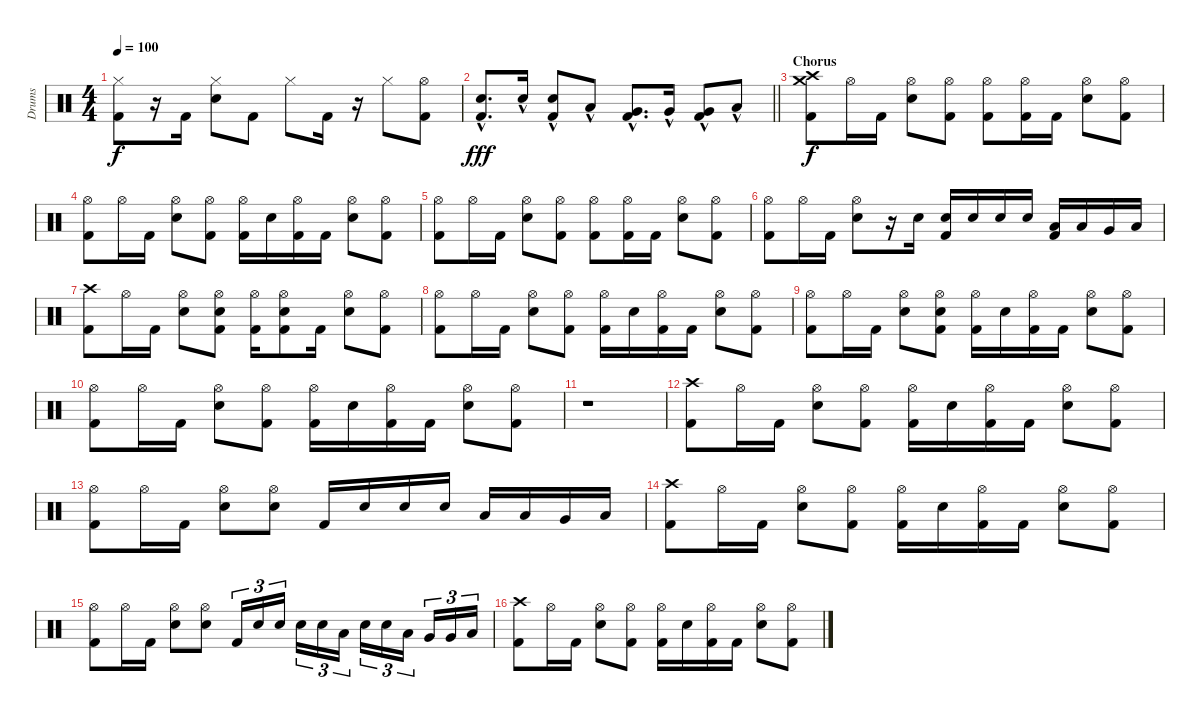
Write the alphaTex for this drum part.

\track ("Drums" "Drums") {instrument percussion}
\staff {score}
\articulation defaults
\ts (4 4)
\tempo 100
\clef neutral
\ks c
("Hi-Hat (closed)" "Kick (hit) 2").8{dy f} r.16 "Kick (hit) 2".16 ("Hi-Hat (closed)" "Snare (hit) 2").8 "Kick (hit) 2".8 "Hi-Hat (closed)".8 "Kick (hit) 2".16 r.16 "Hi-Hat (closed)".8 ("Hi-Hat (open)" "Kick (hit) 2").8 |
\barLineRight lightlight
("Snare (hit) 2"{hac} "Kick (hit) 2").8{d dy fff} "Snare (hit) 2"{hac}.16 ("Snare (hit) 2"{hac} "Kick (hit) 2").8 "Low Tom (hit)"{hac}.8 ("Very Low Tom (hit)"{hac} "Kick (hit) 2").8{d} "Very Low Tom (hit)"{hac}.16 ("Very Low Tom (hit)"{hac} "Kick (hit) 2").8 "Low Floor Tom (hit)"{hac}.8 |
\section ("" "Chorus")
("Crash medium (hit)" "Crash high (hit)" "Kick (hit) 2").8{dy f} "Hi-Hat (open)".16 "Kick (hit) 2".16 ("Hi-Hat (open)" "Snare (hit) 2").8 ("Hi-Hat (open)" "Kick (hit) 2").8 ("Hi-Hat (open)" "Kick (hit) 2").8 ("Hi-Hat (open)" "Kick (hit) 2").16 "Kick (hit) 2".16 ("Hi-Hat (open)" "Snare (hit) 2").8 ("Hi-Hat (open)" "Kick (hit) 2").8 |
("Hi-Hat (open)" "Kick (hit) 2").8 "Hi-Hat (open)".16 "Kick (hit) 2".16 ("Hi-Hat (open)" "Snare (hit) 2").8 ("Hi-Hat (open)" "Kick (hit) 2").8 ("Hi-Hat (open)" "Kick (hit) 2").16 "Snare (hit) 2".16 ("Hi-Hat (open)" "Kick (hit) 2").16 "Kick (hit) 2".16 ("Hi-Hat (open)" "Snare (hit) 2").8 ("Hi-Hat (open)" "Kick (hit) 2").8 |
("Hi-Hat (open)" "Kick (hit) 2").8 "Hi-Hat (open)".16 "Kick (hit) 2".16 ("Hi-Hat (open)" "Snare (hit) 2").8 ("Hi-Hat (open)" "Kick (hit) 2").8 ("Hi-Hat (open)" "Kick (hit) 2").8 ("Hi-Hat (open)" "Kick (hit) 2").16 "Kick (hit) 2".16 ("Hi-Hat (open)" "Snare (hit) 2").8 ("Hi-Hat (open)" "Kick (hit) 2").8 |
("Hi-Hat (open)" "Kick (hit) 2").8 "Hi-Hat (open)".16 "Kick (hit) 2".16 ("Hi-Hat (open)" "Snare (hit) 2").8 r.16 "Snare (hit) 2".16 ("Snare (hit) 2" "Kick (hit) 2").16 "Snare (hit) 2".16 "Snare (hit) 2".16 "Snare (hit) 2".16 ("Low Tom (hit)" "Kick (hit) 2").16 "Low Tom (hit)".16 "Very Low Tom (hit)".16 "Low Floor Tom (hit)".16 |
("Crash high (hit)" "Kick (hit) 2").8 "Hi-Hat (open)".16 "Kick (hit) 2".16 ("Hi-Hat (open)" "Snare (hit) 2").8 ("Hi-Hat (open)" "Snare (hit) 2" "Kick (hit) 2").8 ("Hi-Hat (open)" "Kick (hit) 2").16 ("Hi-Hat (open)" "Snare (hit) 2" "Kick (hit) 2").8 "Kick (hit) 2".16 ("Hi-Hat (open)" "Snare (hit) 2").8 ("Hi-Hat (open)" "Kick (hit) 2").8 |
("Hi-Hat (open)" "Kick (hit) 2").8 "Hi-Hat (open)".16 "Kick (hit) 2".16 ("Hi-Hat (open)" "Snare (hit) 2").8 ("Hi-Hat (open)" "Kick (hit) 2").8 ("Hi-Hat (open)" "Kick (hit) 2").16 "Snare (hit) 2".16 ("Hi-Hat (open)" "Kick (hit) 2").16 "Kick (hit) 2".16 ("Hi-Hat (open)" "Snare (hit) 2").8 ("Hi-Hat (open)" "Kick (hit) 2").8 |
("Hi-Hat (open)" "Kick (hit) 2").8 "Hi-Hat (open)".16 "Kick (hit) 2".16 ("Hi-Hat (open)" "Snare (hit) 2").8 ("Hi-Hat (open)" "Snare (hit) 2" "Kick (hit) 2").8 ("Hi-Hat (open)" "Kick (hit) 2").16 "Snare (hit) 2".16 ("Hi-Hat (open)" "Kick (hit) 2").16 "Kick (hit) 2".16 ("Hi-Hat (open)" "Snare (hit) 2").8 ("Hi-Hat (open)" "Kick (hit) 2").8 |
("Hi-Hat (open)" "Kick (hit) 2").8 "Hi-Hat (open)".16 "Kick (hit) 2".16 ("Hi-Hat (open)" "Snare (hit) 2").8 ("Hi-Hat (open)" "Kick (hit) 2").8 ("Hi-Hat (open)" "Kick (hit) 2").16 "Snare (hit) 2".16 ("Hi-Hat (open)" "Kick (hit) 2").16 "Kick (hit) 2".16 ("Hi-Hat (open)" "Snare (hit) 2").8 ("Hi-Hat (open)" "Kick (hit) 2").8 |
r.1 |
("Crash high (hit)" "Kick (hit) 2").8 "Hi-Hat (open)".16 "Kick (hit) 2".16 ("Hi-Hat (open)" "Snare (hit) 2").8 ("Hi-Hat (open)" "Kick (hit) 2").8 ("Hi-Hat (open)" "Kick (hit) 2").16 "Snare (hit) 2".16 ("Hi-Hat (open)" "Kick (hit) 2").16 "Kick (hit) 2".16 ("Hi-Hat (open)" "Snare (hit) 2").8 ("Hi-Hat (open)" "Kick (hit) 2").8 |
("Hi-Hat (open)" "Kick (hit) 2").8 "Hi-Hat (open)".16 "Kick (hit) 2".16 ("Hi-Hat (open)" "Snare (hit) 2").8 ("Hi-Hat (open)" "Snare (hit) 2").8 "Kick (hit) 2".16 "Snare (hit) 2".16 "Snare (hit) 2".16 "Snare (hit) 2".16 "Low Tom (hit)".16 "Low Tom (hit)".16 "Very Low Tom (hit)".16 "Low Floor Tom (hit)".16 |
("Crash high (hit)" "Kick (hit) 2").8 "Hi-Hat (open)".16 "Kick (hit) 2".16 ("Hi-Hat (open)" "Snare (hit) 2").8 ("Hi-Hat (open)" "Kick (hit) 2").8 ("Hi-Hat (open)" "Kick (hit) 2").16 "Snare (hit) 2".16 ("Hi-Hat (open)" "Kick (hit) 2").16 "Kick (hit) 2".16 ("Hi-Hat (open)" "Snare (hit) 2").8 ("Hi-Hat (open)" "Kick (hit) 2").8 |
("Hi-Hat (open)" "Kick (hit) 2").8 "Hi-Hat (open)".16 "Kick (hit) 2".16 ("Hi-Hat (open)" "Snare (hit) 2").8 ("Hi-Hat (open)" "Snare (hit) 2").8 "Kick (hit) 2".16{tu (3 2)} "Snare (hit) 2".16{tu (3 2)} "Snare (hit) 2".16{tu (3 2) beam splitsecondary} "Snare (hit) 2".16{tu (3 2)} "Snare (hit) 2".16{tu (3 2)} "Low Tom (hit)".16{tu (3 2)} "Snare (hit) 2".16{tu (3 2)} "Snare (hit) 2".16{tu (3 2)} "Low Tom (hit)".16{tu (3 2) beam splitsecondary} "Very Low Tom (hit)".16{tu (3 2)} "Very Low Tom (hit)".16{tu (3 2)} "Low Floor Tom (hit)".16{tu (3 2)} |
("Crash high (hit)" "Kick (hit) 2").8 "Hi-Hat (open)".16 "Kick (hit) 2".16 ("Hi-Hat (open)" "Snare (hit) 2").8 ("Hi-Hat (open)" "Kick (hit) 2").8 ("Hi-Hat (open)" "Kick (hit) 2").16 "Snare (hit) 2".16 ("Hi-Hat (open)" "Kick (hit) 2").16 "Kick (hit) 2".16 ("Hi-Hat (open)" "Snare (hit) 2").8 ("Hi-Hat (open)" "Kick (hit) 2").8
